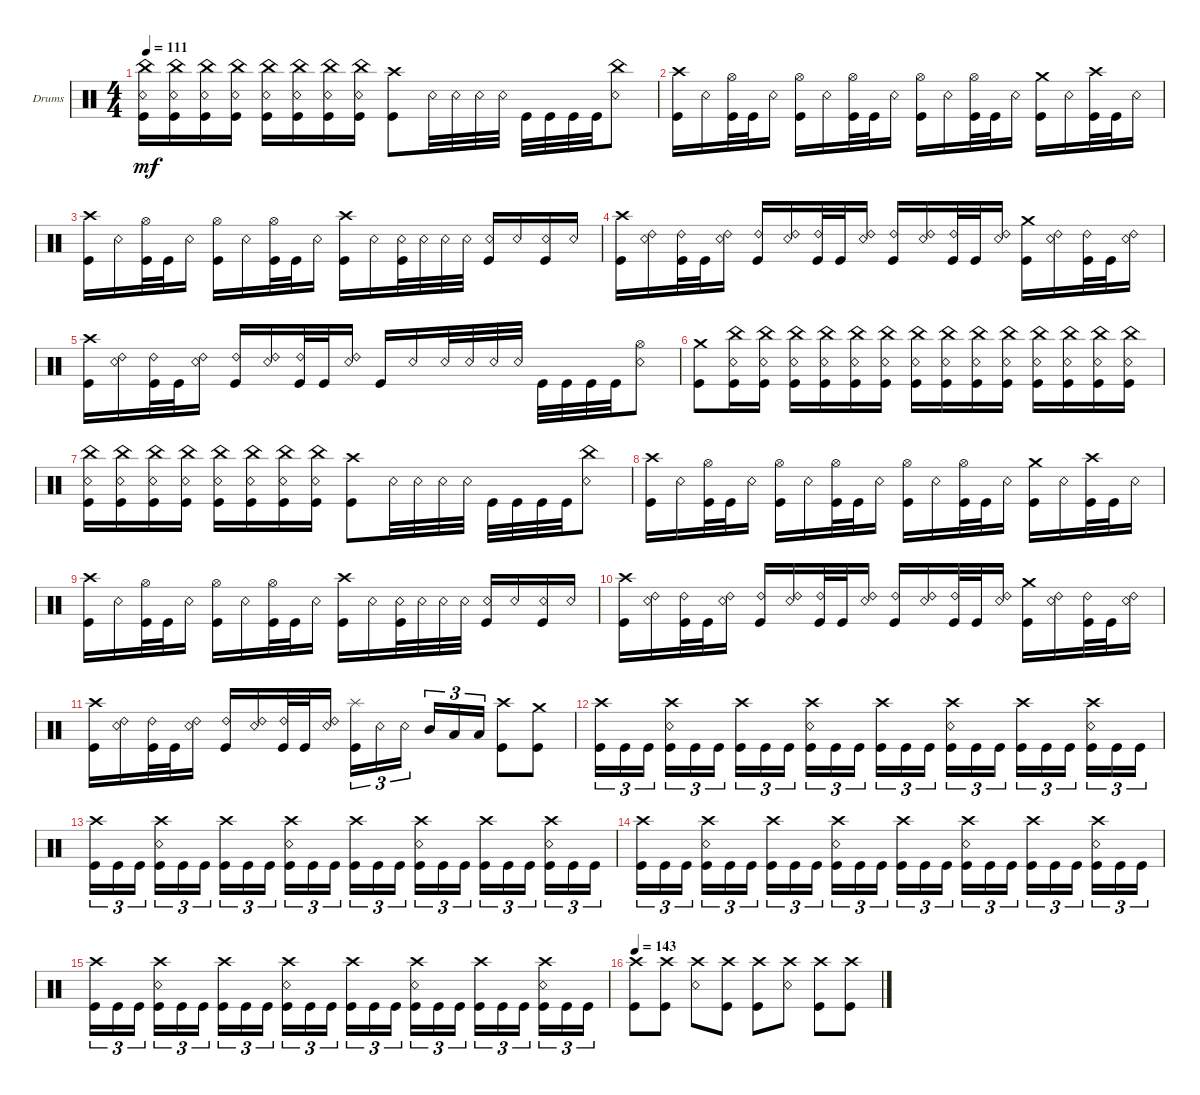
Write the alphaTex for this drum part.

\defaultSystemsLayout 4
\bracketExtendMode groupsimilarinstruments
\firstSystemTrackNameOrientation horizontal
\otherSystemsTrackNameOrientation horizontal
\track ("Drums" "Drums") {instrument percussion}
\staff {score}
\articulation defaults
\ts (4 4)
\tempo 111
\clef neutral
\ks c
("Kick (hit)" "Snare (rim shot)" "China (hit)").16{dy mf} ("Kick (hit)" "Snare (rim shot)" "China (hit)").16 ("Kick (hit)" "Snare (rim shot)" "China (hit)").16 ("Kick (hit)" "Snare (rim shot)" "China (hit)").16 ("Kick (hit)" "Snare (rim shot)" "China (hit)").16 ("Kick (hit)" "Snare (rim shot)" "China (hit)").16 ("Kick (hit)" "Snare (rim shot)" "China (hit)").16 ("Kick (hit)" "Snare (rim shot)" "China (hit)").16 ("Crash high (hit)" "Kick (hit)").8 "Snare (rim shot)".32 "Snare (rim shot)".32 "Snare (rim shot)".32 "Snare (rim shot)".32 "Kick (hit)".32 "Kick (hit)".32 "Kick (hit)".32 "Kick (hit)".32 ("Snare (rim shot)" "China (hit)").8 |
("Kick (hit)" "Crash high (hit)").16 "Snare (rim shot)".16 ("Kick (hit)" "Hi-Hat (open)").32 "Kick (hit)".32 "Snare (rim shot)".16 ("Kick (hit)" "Hi-Hat (open)").16 "Snare (rim shot)".16 ("Kick (hit)" "Hi-Hat (open)").32 "Kick (hit)".32 "Snare (rim shot)".16 ("Kick (hit)" "Hi-Hat (open)").16 "Snare (rim shot)".16 ("Kick (hit)" "Hi-Hat (open)").32 "Kick (hit)".32 "Snare (rim shot)".16 ("Kick (hit)" "Crash medium (hit)").16 "Snare (rim shot)".16 ("Kick (hit)" "Crash high (hit)").32 "Kick (hit)".32 "Snare (rim shot)".16 |
("Kick (hit)" "Crash high (hit)").16 "Snare (rim shot)".16 ("Kick (hit)" "Hi-Hat (open)").32 "Kick (hit)".32 "Snare (rim shot)".16 ("Kick (hit)" "Hi-Hat (open)").16 "Snare (rim shot)".16 ("Kick (hit)" "Hi-Hat (open)").32 "Kick (hit)".32 "Snare (rim shot)".16 ("Kick (hit)" "Crash high (hit)").16 "Snare (rim shot)".16 ("Snare (rim shot)" "Kick (hit)").32 "Snare (rim shot)".32 "Snare (rim shot)".32 "Snare (rim shot)".32 ("Snare (rim shot)" "Kick (hit)").16 "Snare (rim shot)".16 ("Snare (rim shot)" "Kick (hit)").16 "Snare (rim shot)".16 |
("Kick (hit)" "Crash high (hit)").16 ("Snare (rim shot)" "Ride (bell) 2").16 ("Kick (hit)" "Ride (bell) 2").32 "Kick (hit)".32 ("Snare (rim shot)" "Ride (bell) 2").16 ("Kick (hit)" "Ride (bell) 2").16 ("Snare (rim shot)" "Ride (bell) 2").16 ("Kick (hit)" "Ride (bell) 2").32 "Kick (hit)".32 ("Snare (rim shot)" "Ride (bell) 2").16 ("Kick (hit)" "Ride (bell) 2").16 ("Snare (rim shot)" "Ride (bell) 2").16 ("Kick (hit)" "Ride (bell) 2").32 "Kick (hit)".32 ("Snare (rim shot)" "Ride (bell) 2").16 ("Kick (hit)" "Crash medium (hit)").16 ("Snare (rim shot)" "Ride (bell) 2").16 ("Kick (hit)" "Ride (bell) 2").32 "Kick (hit)".32 ("Snare (rim shot)" "Ride (bell) 2").16 |
("Kick (hit)" "Crash high (hit)").16 ("Snare (rim shot)" "Ride (bell) 2").16 ("Kick (hit)" "Ride (bell) 2").32 "Kick (hit)".32 ("Snare (rim shot)" "Ride (bell) 2").16 ("Kick (hit)" "Ride (bell) 2").16 ("Snare (rim shot)" "Ride (bell) 2").16 ("Kick (hit)" "Ride (bell) 2").32 "Kick (hit)".32 ("Snare (rim shot)" "Ride (bell) 2").16 "Kick (hit)".16 "Snare (rim shot)".16 "Snare (rim shot)".32 "Snare (rim shot)".32 "Snare (rim shot)".32 "Snare (rim shot)".32 "Kick (hit)".32 "Kick (hit)".32 "Kick (hit)".32 "Kick (hit)".32 ("Snare (rim shot)" "Hi-Hat (open)").8 |
("Crash medium (hit)" "Kick (hit)").8 ("Kick (hit)" "Snare (rim shot)" "China (hit)").16 ("Kick (hit)" "Snare (rim shot)" "China (hit)").16 ("Kick (hit)" "Snare (rim shot)" "China (hit)").16 ("Kick (hit)" "Snare (rim shot)" "China (hit)").16 ("Kick (hit)" "Snare (rim shot)" "China (hit)").16 ("Kick (hit)" "Snare (rim shot)" "China (hit)").16 ("Kick (hit)" "Snare (rim shot)" "China (hit)").16 ("Kick (hit)" "Snare (rim shot)" "China (hit)").16 ("Kick (hit)" "Snare (rim shot)" "China (hit)").16 ("Kick (hit)" "Snare (rim shot)" "China (hit)").16 ("Kick (hit)" "Snare (rim shot)" "China (hit)").16 ("Kick (hit)" "Snare (rim shot)" "China (hit)").16 ("Kick (hit)" "Snare (rim shot)" "China (hit)").16 ("Kick (hit)" "Snare (rim shot)" "China (hit)").16 |
("Kick (hit)" "Snare (rim shot)" "China (hit)").16 ("Kick (hit)" "Snare (rim shot)" "China (hit)").16 ("Kick (hit)" "Snare (rim shot)" "China (hit)").16 ("Kick (hit)" "Snare (rim shot)" "China (hit)").16 ("Kick (hit)" "Snare (rim shot)" "China (hit)").16 ("Kick (hit)" "Snare (rim shot)" "China (hit)").16 ("Kick (hit)" "Snare (rim shot)" "China (hit)").16 ("Kick (hit)" "Snare (rim shot)" "China (hit)").16 ("Crash high (hit)" "Kick (hit)").8 "Snare (rim shot)".32 "Snare (rim shot)".32 "Snare (rim shot)".32 "Snare (rim shot)".32 "Kick (hit)".32 "Kick (hit)".32 "Kick (hit)".32 "Kick (hit)".32 ("Snare (rim shot)" "China (hit)").8 |
("Kick (hit)" "Crash high (hit)").16 "Snare (rim shot)".16 ("Kick (hit)" "Hi-Hat (open)").32 "Kick (hit)".32 "Snare (rim shot)".16 ("Kick (hit)" "Hi-Hat (open)").16 "Snare (rim shot)".16 ("Kick (hit)" "Hi-Hat (open)").32 "Kick (hit)".32 "Snare (rim shot)".16 ("Kick (hit)" "Hi-Hat (open)").16 "Snare (rim shot)".16 ("Kick (hit)" "Hi-Hat (open)").32 "Kick (hit)".32 "Snare (rim shot)".16 ("Kick (hit)" "Crash medium (hit)").16 "Snare (rim shot)".16 ("Kick (hit)" "Crash high (hit)").32 "Kick (hit)".32 "Snare (rim shot)".16 |
("Kick (hit)" "Crash high (hit)").16 "Snare (rim shot)".16 ("Kick (hit)" "Hi-Hat (open)").32 "Kick (hit)".32 "Snare (rim shot)".16 ("Kick (hit)" "Hi-Hat (open)").16 "Snare (rim shot)".16 ("Kick (hit)" "Hi-Hat (open)").32 "Kick (hit)".32 "Snare (rim shot)".16 ("Kick (hit)" "Crash high (hit)").16 "Snare (rim shot)".16 ("Snare (rim shot)" "Kick (hit)").32 "Snare (rim shot)".32 "Snare (rim shot)".32 "Snare (rim shot)".32 ("Snare (rim shot)" "Kick (hit)").16 "Snare (rim shot)".16 ("Snare (rim shot)" "Kick (hit)").16 "Snare (rim shot)".16 |
("Kick (hit)" "Crash high (hit)").16 ("Snare (rim shot)" "Ride (bell) 2").16 ("Kick (hit)" "Ride (bell) 2").32 "Kick (hit)".32 ("Snare (rim shot)" "Ride (bell) 2").16 ("Kick (hit)" "Ride (bell) 2").16 ("Snare (rim shot)" "Ride (bell) 2").16 ("Kick (hit)" "Ride (bell) 2").32 "Kick (hit)".32 ("Snare (rim shot)" "Ride (bell) 2").16 ("Kick (hit)" "Ride (bell) 2").16 ("Snare (rim shot)" "Ride (bell) 2").16 ("Kick (hit)" "Ride (bell) 2").32 "Kick (hit)".32 ("Snare (rim shot)" "Ride (bell) 2").16 ("Kick (hit)" "Crash medium (hit)").16 ("Snare (rim shot)" "Ride (bell) 2").16 ("Kick (hit)" "Ride (bell) 2").32 "Kick (hit)".32 ("Snare (rim shot)" "Ride (bell) 2").16 |
("Kick (hit)" "Crash high (hit)").16 ("Snare (rim shot)" "Ride (bell) 2").16 ("Kick (hit)" "Ride (bell) 2").32 "Kick (hit)".32 ("Snare (rim shot)" "Ride (bell) 2").16 ("Kick (hit)" "Ride (bell) 2").16 ("Snare (rim shot)" "Ride (bell) 2").16 ("Kick (hit)" "Ride (bell) 2").32 "Kick (hit)".32 ("Snare (rim shot)" "Ride (bell) 2").16 ("Splash (hit)" "Kick (hit)").16{tu (3 2)} "Snare (rim shot)".16{tu (3 2)} "Snare (rim shot)".16{tu (3 2)} "Mid Tom (hit)".16{tu (3 2)} "Low Tom (hit)".16{tu (3 2)} "Low Tom (hit)".16{tu (3 2)} ("Kick (hit)" "Crash high (hit)").8 ("Kick (hit)" "Crash medium (hit)").8 |
("Kick (hit)" "Crash high (hit)").16{tu (3 2)} "Kick (hit)".16{tu (3 2)} "Kick (hit)".16{tu (3 2)} ("Kick (hit)" "Crash high (hit)" "Snare (rim shot)").16{tu (3 2)} "Kick (hit)".16{tu (3 2)} "Kick (hit)".16{tu (3 2)} ("Kick (hit)" "Crash high (hit)").16{tu (3 2)} "Kick (hit)".16{tu (3 2)} "Kick (hit)".16{tu (3 2)} ("Kick (hit)" "Crash high (hit)" "Snare (rim shot)").16{tu (3 2)} "Kick (hit)".16{tu (3 2)} "Kick (hit)".16{tu (3 2)} ("Kick (hit)" "Crash high (hit)").16{tu (3 2)} "Kick (hit)".16{tu (3 2)} "Kick (hit)".16{tu (3 2)} ("Kick (hit)" "Crash high (hit)" "Snare (rim shot)").16{tu (3 2)} "Kick (hit)".16{tu (3 2)} "Kick (hit)".16{tu (3 2)} ("Kick (hit)" "Crash high (hit)").16{tu (3 2)} "Kick (hit)".16{tu (3 2)} "Kick (hit)".16{tu (3 2)} ("Kick (hit)" "Crash high (hit)" "Snare (rim shot)").16{tu (3 2)} "Kick (hit)".16{tu (3 2)} "Kick (hit)".16{tu (3 2)} |
("Kick (hit)" "Crash high (hit)").16{tu (3 2)} "Kick (hit)".16{tu (3 2)} "Kick (hit)".16{tu (3 2)} ("Kick (hit)" "Crash high (hit)" "Snare (rim shot)").16{tu (3 2)} "Kick (hit)".16{tu (3 2)} "Kick (hit)".16{tu (3 2)} ("Kick (hit)" "Crash high (hit)").16{tu (3 2)} "Kick (hit)".16{tu (3 2)} "Kick (hit)".16{tu (3 2)} ("Kick (hit)" "Crash high (hit)" "Snare (rim shot)").16{tu (3 2)} "Kick (hit)".16{tu (3 2)} "Kick (hit)".16{tu (3 2)} ("Kick (hit)" "Crash high (hit)").16{tu (3 2)} "Kick (hit)".16{tu (3 2)} "Kick (hit)".16{tu (3 2)} ("Kick (hit)" "Crash high (hit)" "Snare (rim shot)").16{tu (3 2)} "Kick (hit)".16{tu (3 2)} "Kick (hit)".16{tu (3 2)} ("Kick (hit)" "Crash high (hit)").16{tu (3 2)} "Kick (hit)".16{tu (3 2)} "Kick (hit)".16{tu (3 2)} ("Kick (hit)" "Crash high (hit)" "Snare (rim shot)").16{tu (3 2)} "Kick (hit)".16{tu (3 2)} "Kick (hit)".16{tu (3 2)} |
("Kick (hit)" "Crash high (hit)").16{tu (3 2)} "Kick (hit)".16{tu (3 2)} "Kick (hit)".16{tu (3 2)} ("Kick (hit)" "Crash high (hit)" "Snare (rim shot)").16{tu (3 2)} "Kick (hit)".16{tu (3 2)} "Kick (hit)".16{tu (3 2)} ("Kick (hit)" "Crash high (hit)").16{tu (3 2)} "Kick (hit)".16{tu (3 2)} "Kick (hit)".16{tu (3 2)} ("Kick (hit)" "Crash high (hit)" "Snare (rim shot)").16{tu (3 2)} "Kick (hit)".16{tu (3 2)} "Kick (hit)".16{tu (3 2)} ("Kick (hit)" "Crash high (hit)").16{tu (3 2)} "Kick (hit)".16{tu (3 2)} "Kick (hit)".16{tu (3 2)} ("Kick (hit)" "Crash high (hit)" "Snare (rim shot)").16{tu (3 2)} "Kick (hit)".16{tu (3 2)} "Kick (hit)".16{tu (3 2)} ("Kick (hit)" "Crash high (hit)").16{tu (3 2)} "Kick (hit)".16{tu (3 2)} "Kick (hit)".16{tu (3 2)} ("Kick (hit)" "Crash high (hit)" "Snare (rim shot)").16{tu (3 2)} "Kick (hit)".16{tu (3 2)} "Kick (hit)".16{tu (3 2)} |
("Kick (hit)" "Crash high (hit)").16{tu (3 2)} "Kick (hit)".16{tu (3 2)} "Kick (hit)".16{tu (3 2)} ("Kick (hit)" "Crash high (hit)" "Snare (rim shot)").16{tu (3 2)} "Kick (hit)".16{tu (3 2)} "Kick (hit)".16{tu (3 2)} ("Kick (hit)" "Crash high (hit)").16{tu (3 2)} "Kick (hit)".16{tu (3 2)} "Kick (hit)".16{tu (3 2)} ("Kick (hit)" "Crash high (hit)" "Snare (rim shot)").16{tu (3 2)} "Kick (hit)".16{tu (3 2)} "Kick (hit)".16{tu (3 2)} ("Kick (hit)" "Crash high (hit)").16{tu (3 2)} "Kick (hit)".16{tu (3 2)} "Kick (hit)".16{tu (3 2)} ("Kick (hit)" "Crash high (hit)" "Snare (rim shot)").16{tu (3 2)} "Kick (hit)".16{tu (3 2)} "Kick (hit)".16{tu (3 2)} ("Kick (hit)" "Crash high (hit)").16{tu (3 2)} "Kick (hit)".16{tu (3 2)} "Kick (hit)".16{tu (3 2)} ("Kick (hit)" "Crash high (hit)" "Snare (rim shot)").16{tu (3 2)} "Kick (hit)".16{tu (3 2)} "Kick (hit)".16{tu (3 2)} |
\tempo 143
("Crash high (hit)" "Kick (hit)").8 ("Crash high (hit)" "Kick (hit)").8 ("Crash high (hit)" "Snare (rim shot)").8 ("Crash high (hit)" "Kick (hit)").8 ("Crash high (hit)" "Kick (hit)").8 ("Crash high (hit)" "Snare (rim shot)").8 ("Crash high (hit)" "Kick (hit)").8 ("Crash high (hit)" "Kick (hit)").8
